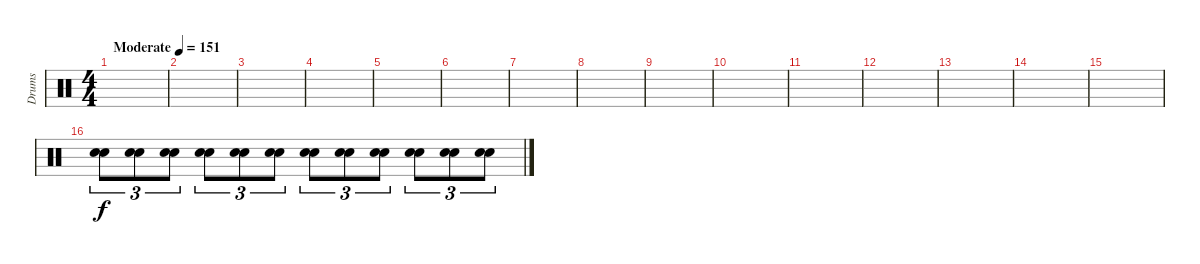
\track ("Drums" "Drums") {instrument percussion}
\staff {score}
\articulation defaults
\ts (4 4)
\tempo (151 "Moderate")
\clef neutral
\ks c
|
|
|
|
|
|
|
|
|
|
|
|
|
|
|
("Electric Snare (hit)" "Electric Snare (hit)").8{tu (3 2)} ("Electric Snare (hit)" "Electric Snare (hit)").8{tu (3 2)} ("Electric Snare (hit)" "Electric Snare (hit)").8{tu (3 2)} ("Electric Snare (hit)" "Electric Snare (hit)").8{tu (3 2)} ("Electric Snare (hit)" "Electric Snare (hit)").8{tu (3 2)} ("Electric Snare (hit)" "Electric Snare (hit)").8{tu (3 2)} ("Electric Snare (hit)" "Electric Snare (hit)").8{tu (3 2)} ("Electric Snare (hit)" "Electric Snare (hit)").8{tu (3 2)} ("Electric Snare (hit)" "Electric Snare (hit)").8{tu (3 2)} ("Electric Snare (hit)" "Electric Snare (hit)").8{tu (3 2)} ("Electric Snare (hit)" "Electric Snare (hit)").8{tu (3 2)} ("Electric Snare (hit)" "Electric Snare (hit)").8{tu (3 2)}
